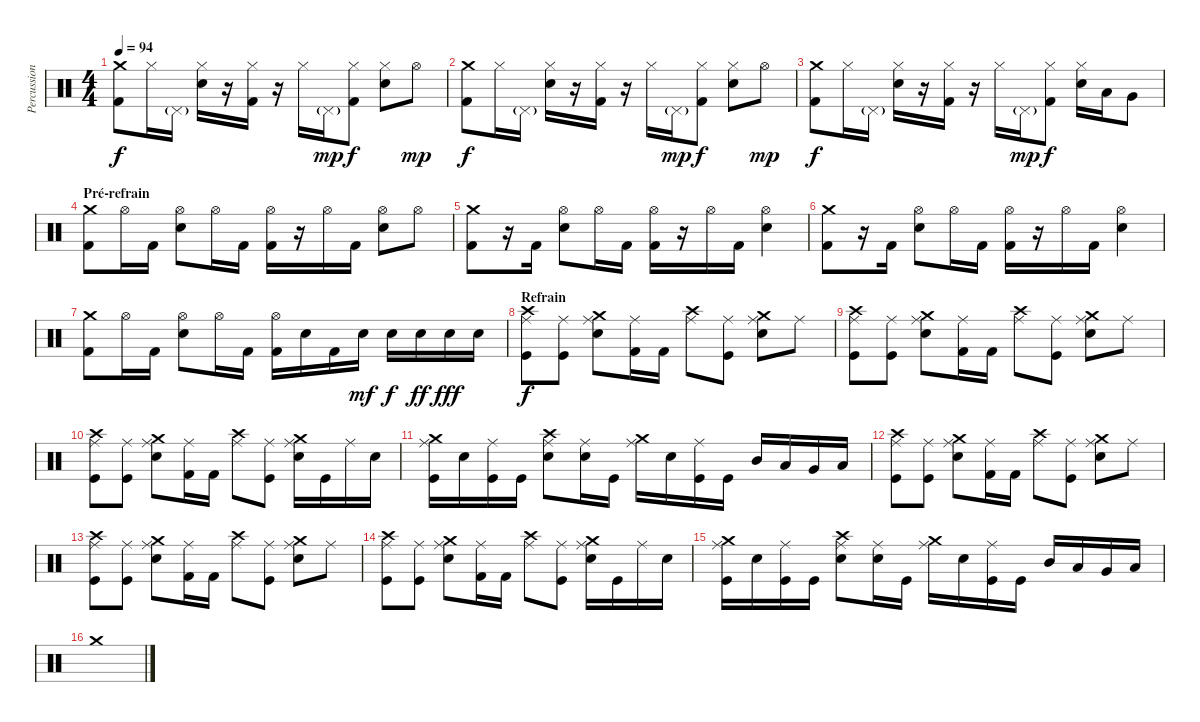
\track ("Percussions" "Percussion") {instrument percussion}
\staff {score}
\articulation defaults
\ts (4 4)
\tempo 94
\clef neutral
\ks c
("Crash medium (hit)" "Kick (hit) 2").8{dy f} "Hi-Hat (closed)".16 "Pedal Hi-Hat (hit)"{g}.16 ("Hi-Hat (closed)" "Electric Snare (hit)").16 r.16 ("Hi-Hat (closed)" "Kick (hit) 2").16 r.16 "Hi-Hat (closed)".16 "Pedal Hi-Hat (hit)"{g}.16{dy mp} ("Hi-Hat (closed)" "Kick (hit) 2").8{dy f} ("Hi-Hat (closed)" "Electric Snare (hit)").8 "Hi-Hat (open)".8{dy mp} |
("Crash medium (hit)" "Kick (hit) 2").8{dy f} "Hi-Hat (closed)".16 "Pedal Hi-Hat (hit)"{g}.16 ("Hi-Hat (closed)" "Electric Snare (hit)").16 r.16 ("Hi-Hat (closed)" "Kick (hit) 2").16 r.16 "Hi-Hat (closed)".16 "Pedal Hi-Hat (hit)"{g}.16{dy mp} ("Hi-Hat (closed)" "Kick (hit) 2").8{dy f} ("Hi-Hat (closed)" "Electric Snare (hit)").8 "Hi-Hat (open)".8{dy mp} |
("Crash medium (hit)" "Kick (hit) 2").8{dy f} "Hi-Hat (closed)".16 "Pedal Hi-Hat (hit)"{g}.16 ("Hi-Hat (closed)" "Electric Snare (hit)").16 r.16 ("Hi-Hat (closed)" "Kick (hit) 2").16 r.16 "Hi-Hat (closed)".16 "Pedal Hi-Hat (hit)"{g}.16{dy mp} ("Hi-Hat (closed)" "Kick (hit) 2").8{dy f} ("Hi-Hat (closed)" "Electric Snare (hit)").16 "Low Tom (hit)".16 "Very Low Tom (hit)".8 |
\section ("" "Pré-refrain")
("Crash medium (hit)" "Kick (hit) 2").8 "Hi-Hat (open)".16 "Kick (hit) 2".16 ("Hi-Hat (open)" "Electric Snare (hit)").8 "Hi-Hat (open)".16 "Kick (hit) 2".16 ("Hi-Hat (open)" "Kick (hit) 2").16 r.16 "Hi-Hat (open)".16 "Kick (hit) 2".16 ("Hi-Hat (open)" "Electric Snare (hit)").8 "Hi-Hat (open)".8 |
("Crash medium (hit)" "Kick (hit) 2").8 r.16 "Kick (hit) 2".16 ("Hi-Hat (open)" "Electric Snare (hit)").8 "Hi-Hat (open)".16 "Kick (hit) 2".16 ("Hi-Hat (open)" "Kick (hit) 2").16 r.16 "Hi-Hat (open)".16 "Kick (hit) 2".16 ("Hi-Hat (open)" "Electric Snare (hit)").4 |
("Crash medium (hit)" "Kick (hit) 2").8 r.16 "Kick (hit) 2".16 ("Hi-Hat (open)" "Electric Snare (hit)").8 "Hi-Hat (open)".16 "Kick (hit) 2".16 ("Hi-Hat (open)" "Kick (hit) 2").16 r.16 "Hi-Hat (open)".16 "Kick (hit) 2".16 ("Hi-Hat (open)" "Electric Snare (hit)").4 |
("Crash medium (hit)" "Kick (hit) 2").8 "Hi-Hat (open)".16 "Kick (hit) 2".16 ("Hi-Hat (open)" "Electric Snare (hit)").8 "Hi-Hat (open)".16 "Kick (hit) 2".16 ("Hi-Hat (open)" "Kick (hit) 2").16 "Electric Snare (hit)".16 "Kick (hit) 2".16 "Electric Snare (hit)".16{dy mf} "Electric Snare (hit)".16{dy f} "Electric Snare (hit)".16{dy ff} "Electric Snare (hit)".16{dy fff} "Electric Snare (hit)".16 |
\section ("" "Refrain")
("Crash high (hit)" "Ride (middle)" "Kick (hit)").8{dy f volume 16} ("Ride (middle)" "Kick (hit)").8 ("Crash medium (hit)" "Ride (middle)" "Electric Snare (hit)").8 ("Ride (middle)" "Kick (hit) 2").16 "Kick (hit) 2".16 ("Crash high (hit)" "Ride (middle)").8 ("Ride (middle)" "Kick (hit)").8 ("Crash medium (hit)" "Ride (middle)" "Electric Snare (hit)").8 "Ride (middle)".8 |
("Crash high (hit)" "Ride (middle)" "Kick (hit)").8 ("Ride (middle)" "Kick (hit)").8 ("Crash medium (hit)" "Ride (middle)" "Electric Snare (hit)").8 ("Ride (middle)" "Kick (hit) 2").16 "Kick (hit) 2".16 ("Crash high (hit)" "Ride (middle)").8 ("Ride (middle)" "Kick (hit)").8 ("Crash medium (hit)" "Ride (middle)" "Electric Snare (hit)").8 "Ride (middle)".8 |
("Crash high (hit)" "Ride (middle)" "Kick (hit)").8 ("Ride (middle)" "Kick (hit)").8 ("Crash medium (hit)" "Ride (middle)" "Electric Snare (hit)").8 ("Ride (middle)" "Kick (hit) 2").16 "Kick (hit) 2".16 ("Crash high (hit)" "Ride (middle)").8 ("Ride (middle)" "Kick (hit)").8 ("Crash medium (hit)" "Ride (middle)" "Electric Snare (hit)").16 "Kick (hit)".16 "Ride (middle)".16 "Electric Snare (hit)".16 |
("Crash medium (hit)" "Ride (middle)" "Kick (hit)").16 "Electric Snare (hit)".16 ("Ride (middle)" "Kick (hit)").16 "Kick (hit)".16 ("Crash high (hit)" "Ride (middle)" "Electric Snare (hit)").8 ("Ride (middle)" "Electric Snare (hit)").16 "Kick (hit)".16 ("Crash medium (hit)" "Ride (middle)").16 "Electric Snare (hit)".16 ("Ride (middle)" "Kick (hit)").16 "Kick (hit)".16 "Mid Tom (hit)".16 "Low Tom (hit)".16 "Very Low Tom (hit)".16 "Low Floor Tom (hit)".16 |
("Crash high (hit)" "Ride (middle)" "Kick (hit)").8{volume 16} ("Ride (middle)" "Kick (hit)").8 ("Crash medium (hit)" "Ride (middle)" "Electric Snare (hit)").8 ("Ride (middle)" "Kick (hit) 2").16 "Kick (hit) 2".16 ("Crash high (hit)" "Ride (middle)").8 ("Ride (middle)" "Kick (hit)").8 ("Crash medium (hit)" "Ride (middle)" "Electric Snare (hit)").8 "Ride (middle)".8 |
("Crash high (hit)" "Ride (middle)" "Kick (hit)").8 ("Ride (middle)" "Kick (hit)").8 ("Crash medium (hit)" "Ride (middle)" "Electric Snare (hit)").8 ("Ride (middle)" "Kick (hit) 2").16 "Kick (hit) 2".16 ("Crash high (hit)" "Ride (middle)").8 ("Ride (middle)" "Kick (hit)").8 ("Crash medium (hit)" "Ride (middle)" "Electric Snare (hit)").8 "Ride (middle)".8 |
("Crash high (hit)" "Ride (middle)" "Kick (hit)").8 ("Ride (middle)" "Kick (hit)").8 ("Crash medium (hit)" "Ride (middle)" "Electric Snare (hit)").8 ("Ride (middle)" "Kick (hit) 2").16 "Kick (hit) 2".16 ("Crash high (hit)" "Ride (middle)").8 ("Ride (middle)" "Kick (hit)").8 ("Crash medium (hit)" "Ride (middle)" "Electric Snare (hit)").16 "Kick (hit)".16 "Ride (middle)".16 "Electric Snare (hit)".16 |
("Crash medium (hit)" "Ride (middle)" "Kick (hit)").16 "Electric Snare (hit)".16 ("Ride (middle)" "Kick (hit)").16 "Kick (hit)".16 ("Crash high (hit)" "Ride (middle)" "Electric Snare (hit)").8 ("Ride (middle)" "Electric Snare (hit)").16 "Kick (hit)".16 ("Crash medium (hit)" "Ride (middle)").16 "Electric Snare (hit)".16 ("Ride (middle)" "Kick (hit)").16 "Kick (hit)".16 "Mid Tom (hit)".16 "Low Tom (hit)".16 "Very Low Tom (hit)".16 "Low Floor Tom (hit)".16 |
"Crash medium (hit)".1
